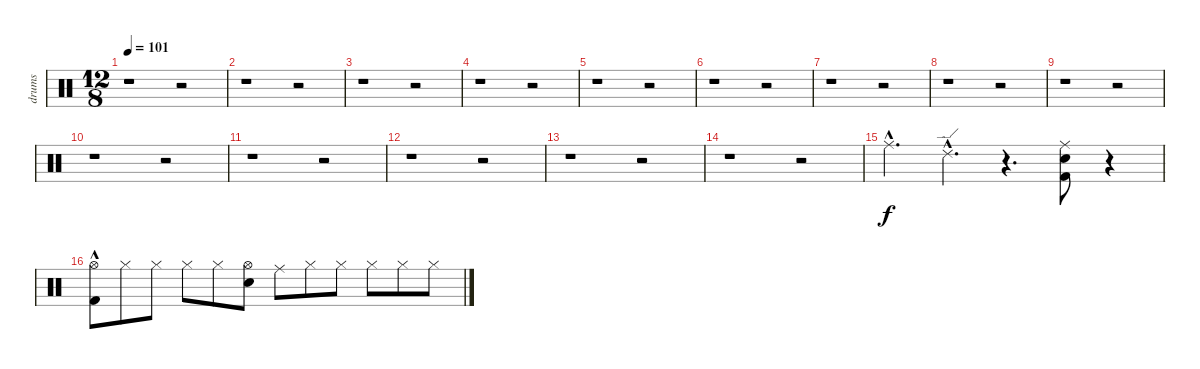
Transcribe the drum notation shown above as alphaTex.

\track ("drums" "drums") {instrument percussion}
\staff {score}
\articulation defaults
\ts (12 8)
\tempo 101
\clef neutral
\ks c
r.1{dy f} r.2 |
r.1 r.2 |
r.1 r.2 |
r.1 r.2 |
r.1 r.2 |
r.1 r.2 |
r.1 r.2 |
r.1 r.2 |
r.1 r.2 |
r.1 r.2 |
r.1 r.2 |
r.1 r.2 |
r.1 r.2 |
r.1 r.2 |
"Ride (middle)"{hac}.4{d} "Ride (edge) 2"{hac}.4{d} r.4{d} ("Ride (middle)" "Snare (hit) 2" "Kick (hit) 2").8 r.4 |
("Hi-Hat (open)"{hac} "Kick (hit) 2"{hac}).8 "Hi-Hat (closed)".8 "Hi-Hat (closed)".8 "Hi-Hat (closed)".8 "Hi-Hat (closed)".8 ("Snare (hit) 2" "Hi-Hat (open)").8 "Ride (middle)".8 "Hi-Hat (closed)".8 "Hi-Hat (closed)".8 "Hi-Hat (closed)".8 "Hi-Hat (closed)".8 "Hi-Hat (closed)".8
